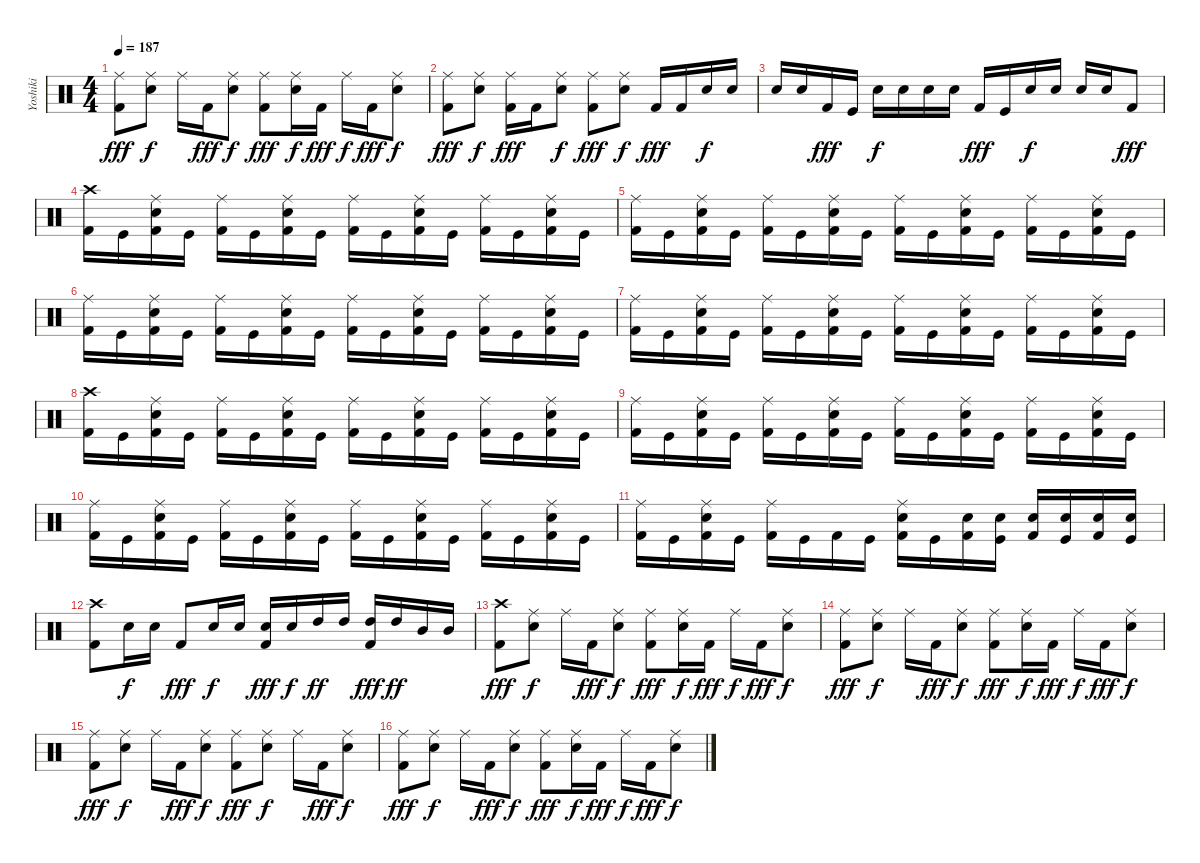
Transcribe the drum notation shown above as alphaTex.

\track ("Yoshiki" "Yoshiki") {instrument percussion}
\staff {score}
\articulation defaults
\ts (4 4)
\tempo 187
\clef neutral
\ks c
("Ride (middle)" "Kick (hit) 2").8{dy fff} ("Ride (middle)" "Electric Snare (hit)").8{dy f} "Ride (middle)".16 "Kick (hit) 2".16{dy fff} ("Ride (middle)" "Electric Snare (hit)").8{dy f} ("Ride (middle)" "Kick (hit) 2").8{dy fff} ("Ride (middle)" "Electric Snare (hit)").16{dy f} "Kick (hit) 2".16{dy fff} "Ride (middle)".16{dy f} "Kick (hit) 2".16{dy fff} ("Ride (middle)" "Electric Snare (hit)").8{dy f} |
("Ride (middle)" "Kick (hit) 2").8{dy fff} ("Ride (middle)" "Electric Snare (hit)").8{dy f} ("Ride (middle)" "Kick (hit) 2").16{dy fff} "Kick (hit) 2".16 ("Ride (middle)" "Electric Snare (hit)").8{dy f} ("Ride (middle)" "Kick (hit) 2").8{dy fff} ("Ride (middle)" "Electric Snare (hit)").8{dy f} "Kick (hit) 2".16{dy fff} "Kick (hit) 2".16 "Electric Snare (hit)".16{dy f} "Electric Snare (hit)".16 |
"Electric Snare (hit)".16 "Electric Snare (hit)".16 "Kick (hit) 2".16{dy fff} "Kick (hit)".16 "Electric Snare (hit)".16{dy f} "Electric Snare (hit)".16 "Electric Snare (hit)".16 "Electric Snare (hit)".16 "Kick (hit) 2".16{dy fff} "Kick (hit)".16 "Electric Snare (hit)".16{dy f} "Electric Snare (hit)".16 "Electric Snare (hit)".16 "Electric Snare (hit)".16 "Kick (hit) 2".8{dy fff} |
("Crash high (hit)" "Kick (hit) 2").16 "Kick (hit)".16 ("Ride (middle)" "Electric Snare (hit)" "Kick (hit) 2").16 "Kick (hit)".16 ("Ride (middle)" "Kick (hit) 2").16 "Kick (hit)".16 ("Ride (middle)" "Electric Snare (hit)" "Kick (hit) 2").16 "Kick (hit)".16 ("Ride (middle)" "Kick (hit) 2").16 "Kick (hit)".16 ("Ride (middle)" "Electric Snare (hit)" "Kick (hit) 2").16 "Kick (hit)".16 ("Ride (middle)" "Kick (hit) 2").16 "Kick (hit)".16 ("Ride (middle)" "Electric Snare (hit)" "Kick (hit) 2").16 "Kick (hit)".16 |
("Ride (middle)" "Kick (hit) 2").16 "Kick (hit)".16 ("Ride (middle)" "Electric Snare (hit)" "Kick (hit) 2").16 "Kick (hit)".16 ("Ride (middle)" "Kick (hit) 2").16 "Kick (hit)".16 ("Ride (middle)" "Electric Snare (hit)" "Kick (hit) 2").16 "Kick (hit)".16 ("Ride (middle)" "Kick (hit) 2").16 "Kick (hit)".16 ("Ride (middle)" "Electric Snare (hit)" "Kick (hit) 2").16 "Kick (hit)".16 ("Ride (middle)" "Kick (hit) 2").16 "Kick (hit)".16 ("Ride (middle)" "Electric Snare (hit)" "Kick (hit) 2").16 "Kick (hit)".16 |
("Ride (middle)" "Kick (hit) 2").16 "Kick (hit)".16 ("Ride (middle)" "Electric Snare (hit)" "Kick (hit) 2").16 "Kick (hit)".16 ("Ride (middle)" "Kick (hit) 2").16 "Kick (hit)".16 ("Ride (middle)" "Electric Snare (hit)" "Kick (hit) 2").16 "Kick (hit)".16 ("Ride (middle)" "Kick (hit) 2").16 "Kick (hit)".16 ("Ride (middle)" "Electric Snare (hit)" "Kick (hit) 2").16 "Kick (hit)".16 ("Ride (middle)" "Kick (hit) 2").16 "Kick (hit)".16 ("Ride (middle)" "Electric Snare (hit)" "Kick (hit) 2").16 "Kick (hit)".16 |
("Ride (middle)" "Kick (hit) 2").16 "Kick (hit)".16 ("Ride (middle)" "Electric Snare (hit)" "Kick (hit) 2").16 "Kick (hit)".16 ("Ride (middle)" "Kick (hit) 2").16 "Kick (hit)".16 ("Ride (middle)" "Electric Snare (hit)" "Kick (hit) 2").16 "Kick (hit)".16 ("Ride (middle)" "Kick (hit) 2").16 "Kick (hit)".16 ("Ride (middle)" "Electric Snare (hit)" "Kick (hit) 2").16 "Kick (hit)".16 ("Ride (middle)" "Kick (hit) 2").16 "Kick (hit)".16 ("Ride (middle)" "Electric Snare (hit)" "Kick (hit) 2").16 "Kick (hit)".16 |
("Crash high (hit)" "Kick (hit) 2").16 "Kick (hit)".16 ("Ride (middle)" "Electric Snare (hit)" "Kick (hit) 2").16 "Kick (hit)".16 ("Ride (middle)" "Kick (hit) 2").16 "Kick (hit)".16 ("Ride (middle)" "Electric Snare (hit)" "Kick (hit) 2").16 "Kick (hit)".16 ("Ride (middle)" "Kick (hit) 2").16 "Kick (hit)".16 ("Ride (middle)" "Electric Snare (hit)" "Kick (hit) 2").16 "Kick (hit)".16 ("Ride (middle)" "Kick (hit) 2").16 "Kick (hit)".16 ("Ride (middle)" "Electric Snare (hit)" "Kick (hit) 2").16 "Kick (hit)".16 |
("Ride (middle)" "Kick (hit) 2").16 "Kick (hit)".16 ("Ride (middle)" "Electric Snare (hit)" "Kick (hit) 2").16 "Kick (hit)".16 ("Ride (middle)" "Kick (hit) 2").16 "Kick (hit)".16 ("Ride (middle)" "Electric Snare (hit)" "Kick (hit) 2").16 "Kick (hit)".16 ("Ride (middle)" "Kick (hit) 2").16 "Kick (hit)".16 ("Ride (middle)" "Electric Snare (hit)" "Kick (hit) 2").16 "Kick (hit)".16 ("Ride (middle)" "Kick (hit) 2").16 "Kick (hit)".16 ("Ride (middle)" "Electric Snare (hit)" "Kick (hit) 2").16 "Kick (hit)".16 |
("Ride (middle)" "Kick (hit) 2").16 "Kick (hit)".16 ("Ride (middle)" "Electric Snare (hit)" "Kick (hit) 2").16 "Kick (hit)".16 ("Ride (middle)" "Kick (hit) 2").16 "Kick (hit)".16 ("Ride (middle)" "Electric Snare (hit)" "Kick (hit) 2").16 "Kick (hit)".16 ("Ride (middle)" "Kick (hit) 2").16 "Kick (hit)".16 ("Ride (middle)" "Electric Snare (hit)" "Kick (hit) 2").16 "Kick (hit)".16 ("Ride (middle)" "Kick (hit) 2").16 "Kick (hit)".16 ("Ride (middle)" "Electric Snare (hit)" "Kick (hit) 2").16 "Kick (hit)".16 |
("Ride (middle)" "Kick (hit) 2").16 "Kick (hit)".16 ("Ride (middle)" "Electric Snare (hit)" "Kick (hit) 2").16 "Kick (hit)".16 ("Ride (middle)" "Kick (hit) 2").16 "Kick (hit)".16 "Kick (hit) 2".16 "Kick (hit)".16 ("Ride (middle)" "Electric Snare (hit)" "Kick (hit) 2").16 "Kick (hit)".16 ("Electric Snare (hit)" "Kick (hit) 2").16 ("Electric Snare (hit)" "Kick (hit)").16 ("Electric Snare (hit)" "Kick (hit) 2").16 ("Electric Snare (hit)" "Kick (hit)").16 ("Electric Snare (hit)" "Kick (hit) 2").16 ("Electric Snare (hit)" "Kick (hit)").16 |
("Crash high (hit)" "Kick (hit) 2").8 "Electric Snare (hit)".16{dy f} "Electric Snare (hit)".16 "Kick (hit) 2".8{dy fff} "Electric Snare (hit)".16{dy f} "Electric Snare (hit)".16 ("Electric Snare (hit)" "Kick (hit) 2").16{dy fff} "Electric Snare (hit)".16{dy f} "High Tom (hit)".16{dy ff} "High Tom (hit)".16 ("High Tom (hit)" "Kick (hit) 2").16{dy fff} "High Tom (hit)".16{dy ff} "Mid Tom (hit)".16 "Mid Tom (hit)".16 |
("Crash high (hit)" "Kick (hit) 2").8{dy fff} ("Ride (middle)" "Electric Snare (hit)").8{dy f} "Ride (middle)".16 "Kick (hit) 2".16{dy fff} ("Ride (middle)" "Electric Snare (hit)").8{dy f} ("Ride (middle)" "Kick (hit) 2").8{dy fff} ("Ride (middle)" "Electric Snare (hit)").16{dy f} "Kick (hit) 2".16{dy fff} "Ride (middle)".16{dy f} "Kick (hit) 2".16{dy fff} ("Ride (middle)" "Electric Snare (hit)").8{dy f} |
("Ride (middle)" "Kick (hit) 2").8{dy fff} ("Ride (middle)" "Electric Snare (hit)").8{dy f} "Ride (middle)".16 "Kick (hit) 2".16{dy fff} ("Ride (middle)" "Electric Snare (hit)").8{dy f} ("Ride (middle)" "Kick (hit) 2").8{dy fff} ("Ride (middle)" "Electric Snare (hit)").16{dy f} "Kick (hit) 2".16{dy fff} "Ride (middle)".16{dy f} "Kick (hit) 2".16{dy fff} ("Ride (middle)" "Electric Snare (hit)").8{dy f} |
("Ride (middle)" "Kick (hit) 2").8{dy fff} ("Ride (middle)" "Electric Snare (hit)").8{dy f} "Ride (middle)".16 "Kick (hit) 2".16{dy fff} ("Ride (middle)" "Electric Snare (hit)").8{dy f} ("Ride (middle)" "Kick (hit) 2").8{dy fff} ("Ride (middle)" "Electric Snare (hit)").8{dy f} "Ride (middle)".16 "Kick (hit) 2".16{dy fff} ("Ride (middle)" "Electric Snare (hit)").8{dy f} |
("Ride (middle)" "Kick (hit) 2").8{dy fff} ("Ride (middle)" "Electric Snare (hit)").8{dy f} "Ride (middle)".16 "Kick (hit) 2".16{dy fff} ("Ride (middle)" "Electric Snare (hit)").8{dy f} ("Ride (middle)" "Kick (hit) 2").8{dy fff} ("Ride (middle)" "Electric Snare (hit)").16{dy f} "Kick (hit) 2".16{dy fff} "Ride (middle)".16{dy f} "Kick (hit) 2".16{dy fff} ("Ride (middle)" "Electric Snare (hit)").8{dy f}
